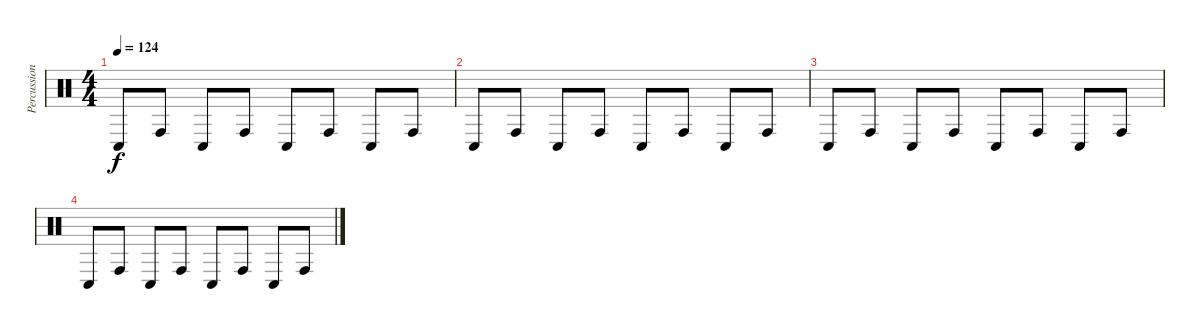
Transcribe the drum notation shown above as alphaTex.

\track ("Percussion" "Percussion") {instrument percussion}
\staff {score}
\articulation defaults
\ts (4 4)
\tempo 124
\clef neutral
\ks c "Conga low (hit)".8{dy f volume 6} "Conga high (hit)".8 "Conga low (hit)".8 "Conga high (hit)".8 "Conga low (hit)".8 "Conga high (hit)".8 "Conga low (hit)".8 "Conga high (hit)".8
|
"Conga low (hit)".8{volume 6} "Conga high (hit)".8 "Conga low (hit)".8 "Conga high (hit)".8 "Conga low (hit)".8 "Conga high (hit)".8 "Conga low (hit)".8 "Conga high (hit)".8 |
"Conga low (hit)".8{volume 6} "Conga high (hit)".8 "Conga low (hit)".8 "Conga high (hit)".8 "Conga low (hit)".8 "Conga high (hit)".8 "Conga low (hit)".8 "Conga high (hit)".8 |
"Conga low (hit)".8{volume 6} "Conga high (hit)".8 "Conga low (hit)".8 "Conga high (hit)".8 "Conga low (hit)".8 "Conga high (hit)".8 "Conga low (hit)".8 "Conga high (hit)".8
